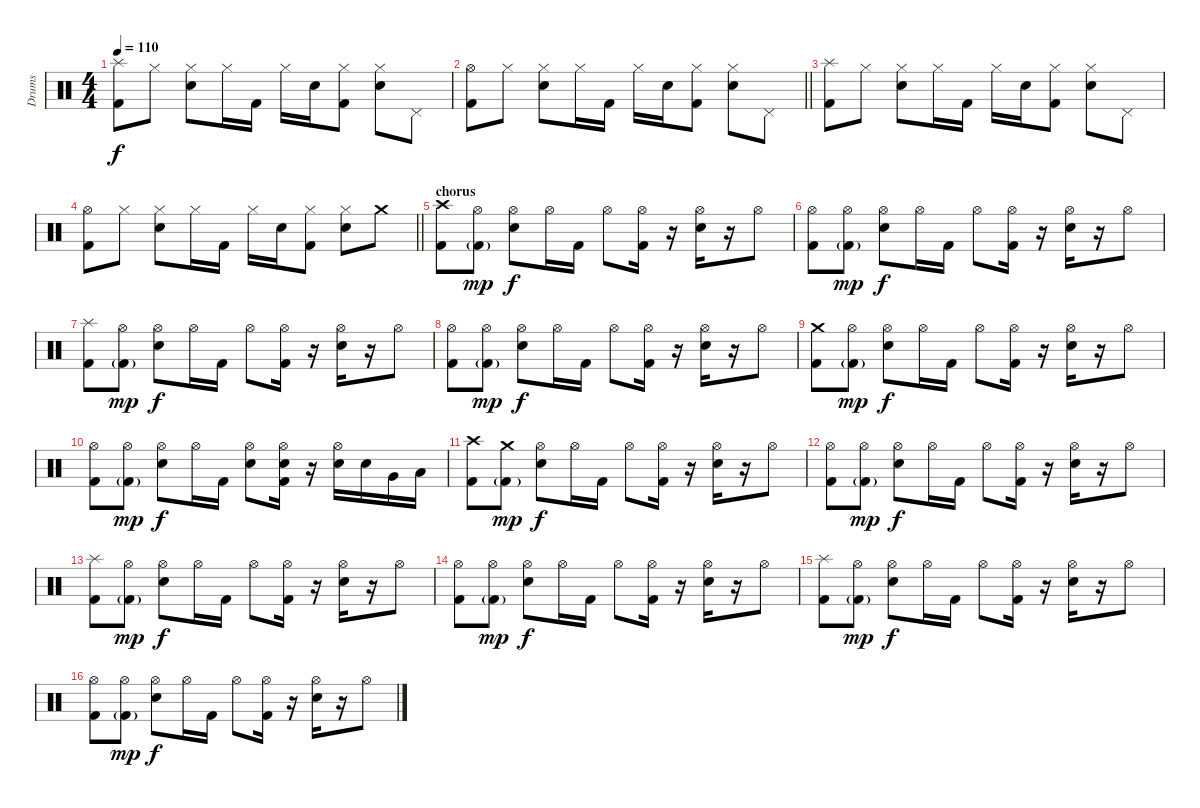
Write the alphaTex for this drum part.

\track ("Drums" "Drums") {instrument percussion}
\staff {score}
\articulation defaults
\ts (4 4)
\tempo 110
\clef neutral
\ks c
("Splash (hit)" "Kick (hit) 2").8{dy f} "Hi-Hat (closed)".8 ("Hi-Hat (closed)" "Snare (hit) 2").8 "Hi-Hat (closed)".16 "Kick (hit) 2".16 "Hi-Hat (closed)".16 "Snare (hit) 2".16 ("Hi-Hat (closed)" "Kick (hit) 2").8 ("Hi-Hat (closed)" "Snare (hit) 2").8 "Pedal Hi-Hat (hit)".8 |
\barLineRight lightlight
("Hi-Hat (open)" "Kick (hit) 2").8 "Hi-Hat (closed)".8 ("Hi-Hat (closed)" "Snare (hit) 2").8 "Hi-Hat (closed)".16 "Kick (hit) 2".16 "Hi-Hat (closed)".16 "Snare (hit) 2".16 ("Hi-Hat (closed)" "Kick (hit) 2").8 ("Hi-Hat (closed)" "Snare (hit) 2").8 "Pedal Hi-Hat (hit)".8 |
("Splash (hit)" "Kick (hit) 2").8 "Hi-Hat (closed)".8 ("Hi-Hat (closed)" "Snare (hit) 2").8 "Hi-Hat (closed)".16 "Kick (hit) 2".16 "Hi-Hat (closed)".16 "Snare (hit) 2".16 ("Hi-Hat (closed)" "Kick (hit) 2").8 ("Hi-Hat (closed)" "Snare (hit) 2").8 "Pedal Hi-Hat (hit)".8 |
\barLineRight lightlight
("Hi-Hat (open)" "Kick (hit) 2").8 "Hi-Hat (closed)".8 ("Hi-Hat (closed)" "Snare (hit) 2").8 "Hi-Hat (closed)".16 "Kick (hit) 2".16 "Hi-Hat (closed)".16 "Snare (hit) 2".16 ("Hi-Hat (closed)" "Kick (hit) 2").8 ("Hi-Hat (closed)" "Snare (hit) 2").8 "Crash medium (hit)".8 |
\section ("" "chorus")
("Crash high (hit)" "Kick (hit) 2").8 ("Hi-Hat (open)" "Kick (hit) 2"{g}).8{dy mp} ("Hi-Hat (open)" "Electric Snare (hit)").8{dy f} "Hi-Hat (open)".16 "Kick (hit) 2".16 "Hi-Hat (open)".8 ("Hi-Hat (open)" "Kick (hit) 2").16 r.16 ("Hi-Hat (open)" "Electric Snare (hit)").16 r.16 "Hi-Hat (open)".8 |
("Hi-Hat (open)" "Kick (hit) 2").8 ("Hi-Hat (open)" "Kick (hit) 2"{g}).8{dy mp} ("Hi-Hat (open)" "Electric Snare (hit)").8{dy f} "Hi-Hat (open)".16 "Kick (hit) 2".16 "Hi-Hat (open)".8 ("Hi-Hat (open)" "Kick (hit) 2").16 r.16 ("Hi-Hat (open)" "Electric Snare (hit)").16 r.16 "Hi-Hat (open)".8 |
("Splash (hit)" "Kick (hit) 2").8 ("Hi-Hat (open)" "Kick (hit) 2"{g}).8{dy mp} ("Hi-Hat (open)" "Electric Snare (hit)").8{dy f} "Hi-Hat (open)".16 "Kick (hit) 2".16 "Hi-Hat (open)".8 ("Hi-Hat (open)" "Kick (hit) 2").16 r.16 ("Hi-Hat (open)" "Electric Snare (hit)").16 r.16 "Hi-Hat (open)".8 |
("Hi-Hat (open)" "Kick (hit) 2").8 ("Hi-Hat (open)" "Kick (hit) 2"{g}).8{dy mp} ("Hi-Hat (open)" "Electric Snare (hit)").8{dy f} "Hi-Hat (open)".16 "Kick (hit) 2".16 "Hi-Hat (open)".8 ("Hi-Hat (open)" "Kick (hit) 2").16 r.16 ("Hi-Hat (open)" "Electric Snare (hit)").16 r.16 "Hi-Hat (open)".8 |
("Crash medium (hit)" "Kick (hit) 2").8 ("Hi-Hat (open)" "Kick (hit) 2"{g}).8{dy mp} ("Hi-Hat (open)" "Electric Snare (hit)").8{dy f} "Hi-Hat (open)".16 "Kick (hit) 2".16 "Hi-Hat (open)".8 ("Hi-Hat (open)" "Kick (hit) 2").16 r.16 ("Hi-Hat (open)" "Electric Snare (hit)").16 r.16 "Hi-Hat (open)".8 |
("Hi-Hat (open)" "Kick (hit) 2").8 ("Hi-Hat (open)" "Kick (hit) 2"{g}).8{dy mp} ("Hi-Hat (open)" "Electric Snare (hit)").8{dy f} "Hi-Hat (open)".16 "Kick (hit) 2".16 ("Hi-Hat (open)" "Electric Snare (hit)").8 ("Hi-Hat (open)" "Electric Snare (hit)" "Kick (hit) 2").16 r.16 ("Hi-Hat (open)" "Electric Snare (hit)").16 "Electric Snare (hit)".16 "Very Low Tom (hit)".16 "Low Tom (hit)".16 |
("Crash high (hit)" "Kick (hit) 2").8 ("Crash medium (hit)" "Kick (hit) 2"{g}).8{dy mp} ("Hi-Hat (open)" "Electric Snare (hit)").8{dy f} "Hi-Hat (open)".16 "Kick (hit) 2".16 "Hi-Hat (open)".8 ("Hi-Hat (open)" "Kick (hit) 2").16 r.16 ("Hi-Hat (open)" "Electric Snare (hit)").16 r.16 "Hi-Hat (open)".8 |
("Hi-Hat (open)" "Kick (hit) 2").8 ("Hi-Hat (open)" "Kick (hit) 2"{g}).8{dy mp} ("Hi-Hat (open)" "Electric Snare (hit)").8{dy f} "Hi-Hat (open)".16 "Kick (hit) 2".16 "Hi-Hat (open)".8 ("Hi-Hat (open)" "Kick (hit) 2").16 r.16 ("Hi-Hat (open)" "Electric Snare (hit)").16 r.16 "Hi-Hat (open)".8 |
("Splash (hit)" "Kick (hit) 2").8 ("Hi-Hat (open)" "Kick (hit) 2"{g}).8{dy mp} ("Hi-Hat (open)" "Electric Snare (hit)").8{dy f} "Hi-Hat (open)".16 "Kick (hit) 2".16 "Hi-Hat (open)".8 ("Hi-Hat (open)" "Kick (hit) 2").16 r.16 ("Hi-Hat (open)" "Electric Snare (hit)").16 r.16 "Hi-Hat (open)".8 |
("Hi-Hat (open)" "Kick (hit) 2").8 ("Hi-Hat (open)" "Kick (hit) 2"{g}).8{dy mp} ("Hi-Hat (open)" "Electric Snare (hit)").8{dy f} "Hi-Hat (open)".16 "Kick (hit) 2".16 "Hi-Hat (open)".8 ("Hi-Hat (open)" "Kick (hit) 2").16 r.16 ("Hi-Hat (open)" "Electric Snare (hit)").16 r.16 "Hi-Hat (open)".8 |
("Splash (hit)" "Kick (hit) 2").8 ("Hi-Hat (open)" "Kick (hit) 2"{g}).8{dy mp} ("Hi-Hat (open)" "Electric Snare (hit)").8{dy f} "Hi-Hat (open)".16 "Kick (hit) 2".16 "Hi-Hat (open)".8 ("Hi-Hat (open)" "Kick (hit) 2").16 r.16 ("Hi-Hat (open)" "Electric Snare (hit)").16 r.16 "Hi-Hat (open)".8 |
("Hi-Hat (open)" "Kick (hit) 2").8 ("Hi-Hat (open)" "Kick (hit) 2"{g}).8{dy mp} ("Hi-Hat (open)" "Electric Snare (hit)").8{dy f} "Hi-Hat (open)".16 "Kick (hit) 2".16 "Hi-Hat (open)".8 ("Hi-Hat (open)" "Kick (hit) 2").16 r.16 ("Hi-Hat (open)" "Electric Snare (hit)").16 r.16 "Hi-Hat (open)".8
